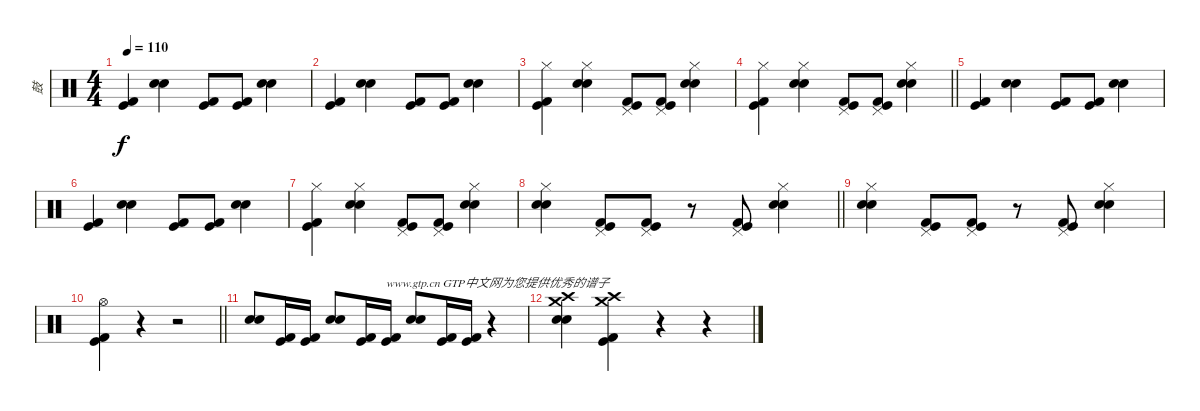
\track ("鼓" "鼓") {instrument percussion}
\staff {score}
\articulation defaults
\ts (4 4)
\tempo 110
\clef neutral
\ks c
("Kick (hit) 2" "Kick (hit)").4{dy f} ("Electric Snare (hit)" "Snare (hit) 2").4 ("Kick (hit) 2" "Kick (hit)").8 ("Kick (hit) 2" "Kick (hit)").8 ("Electric Snare (hit)" "Snare (hit) 2").4 |
("Kick (hit) 2" "Kick (hit)").4 ("Electric Snare (hit)" "Snare (hit) 2").4 ("Kick (hit) 2" "Kick (hit)").8 ("Kick (hit) 2" "Kick (hit)").8 ("Electric Snare (hit)" "Snare (hit) 2").4 |
("Kick (hit) 2" "Kick (hit)" "Hi-Hat (closed)").4 ("Electric Snare (hit)" "Snare (hit) 2" "Hi-Hat (closed)").4 ("Kick (hit) 2" "Kick (hit)" "Pedal Hi-Hat (hit)").8 ("Kick (hit) 2" "Kick (hit)" "Pedal Hi-Hat (hit)").8 ("Electric Snare (hit)" "Snare (hit) 2" "Hi-Hat (closed)").4 |
\barLineRight lightlight
("Kick (hit) 2" "Kick (hit)" "Hi-Hat (closed)").4 ("Electric Snare (hit)" "Snare (hit) 2" "Hi-Hat (closed)").4 ("Kick (hit) 2" "Kick (hit)" "Pedal Hi-Hat (hit)").8 ("Kick (hit) 2" "Kick (hit)" "Pedal Hi-Hat (hit)").8 ("Electric Snare (hit)" "Snare (hit) 2" "Hi-Hat (closed)").4 |
("Kick (hit) 2" "Kick (hit)").4 ("Electric Snare (hit)" "Snare (hit) 2").4 ("Kick (hit) 2" "Kick (hit)").8 ("Kick (hit) 2" "Kick (hit)").8 ("Electric Snare (hit)" "Snare (hit) 2").4 |
("Kick (hit) 2" "Kick (hit)").4 ("Electric Snare (hit)" "Snare (hit) 2").4 ("Kick (hit) 2" "Kick (hit)").8 ("Kick (hit) 2" "Kick (hit)").8 ("Electric Snare (hit)" "Snare (hit) 2").4 |
("Kick (hit) 2" "Kick (hit)" "Hi-Hat (closed)").4 ("Electric Snare (hit)" "Snare (hit) 2" "Hi-Hat (closed)").4 ("Kick (hit) 2" "Kick (hit)" "Pedal Hi-Hat (hit)").8 ("Kick (hit) 2" "Kick (hit)" "Pedal Hi-Hat (hit)").8 ("Electric Snare (hit)" "Snare (hit) 2" "Hi-Hat (closed)").4 |
\barLineRight lightlight
("Electric Snare (hit)" "Snare (hit) 2" "Hi-Hat (closed)").4 ("Kick (hit) 2" "Kick (hit)" "Pedal Hi-Hat (hit)").8 ("Kick (hit) 2" "Kick (hit)" "Pedal Hi-Hat (hit)").8 r.8 ("Kick (hit) 2" "Kick (hit)" "Pedal Hi-Hat (hit)").8 ("Electric Snare (hit)" "Snare (hit) 2" "Hi-Hat (closed)").4 |
("Electric Snare (hit)" "Snare (hit) 2" "Hi-Hat (closed)").4 ("Kick (hit) 2" "Kick (hit)" "Pedal Hi-Hat (hit)").8 ("Kick (hit) 2" "Kick (hit)" "Pedal Hi-Hat (hit)").8 r.8 ("Kick (hit) 2" "Kick (hit)" "Pedal Hi-Hat (hit)").8 ("Electric Snare (hit)" "Snare (hit) 2" "Hi-Hat (closed)").4 |
\barLineRight lightlight
("Kick (hit)" "Kick (hit) 2" "Hi-Hat (open)").4 r.4 r.2 |
("Snare (hit) 2" "Electric Snare (hit)").8 ("Kick (hit)" "Kick (hit) 2").16 ("Kick (hit)" "Kick (hit) 2").16 ("Snare (hit) 2" "Electric Snare (hit)").8 ("Kick (hit)" "Kick (hit) 2").16 ("Kick (hit)" "Kick (hit) 2").16{txt "www.gtp.cn GTP中文网为您提供优秀的谱子"} ("Snare (hit) 2" "Electric Snare (hit)").8 ("Kick (hit)" "Kick (hit) 2").16 ("Kick (hit)" "Kick (hit) 2").16 r.4 |
("Snare (hit) 2" "Electric Snare (hit)" "Crash high (hit)" "Crash medium (hit)").4 ("Kick (hit)" "Kick (hit) 2" "Crash high (hit)" "Crash medium (hit)").4 r.4 r.4
